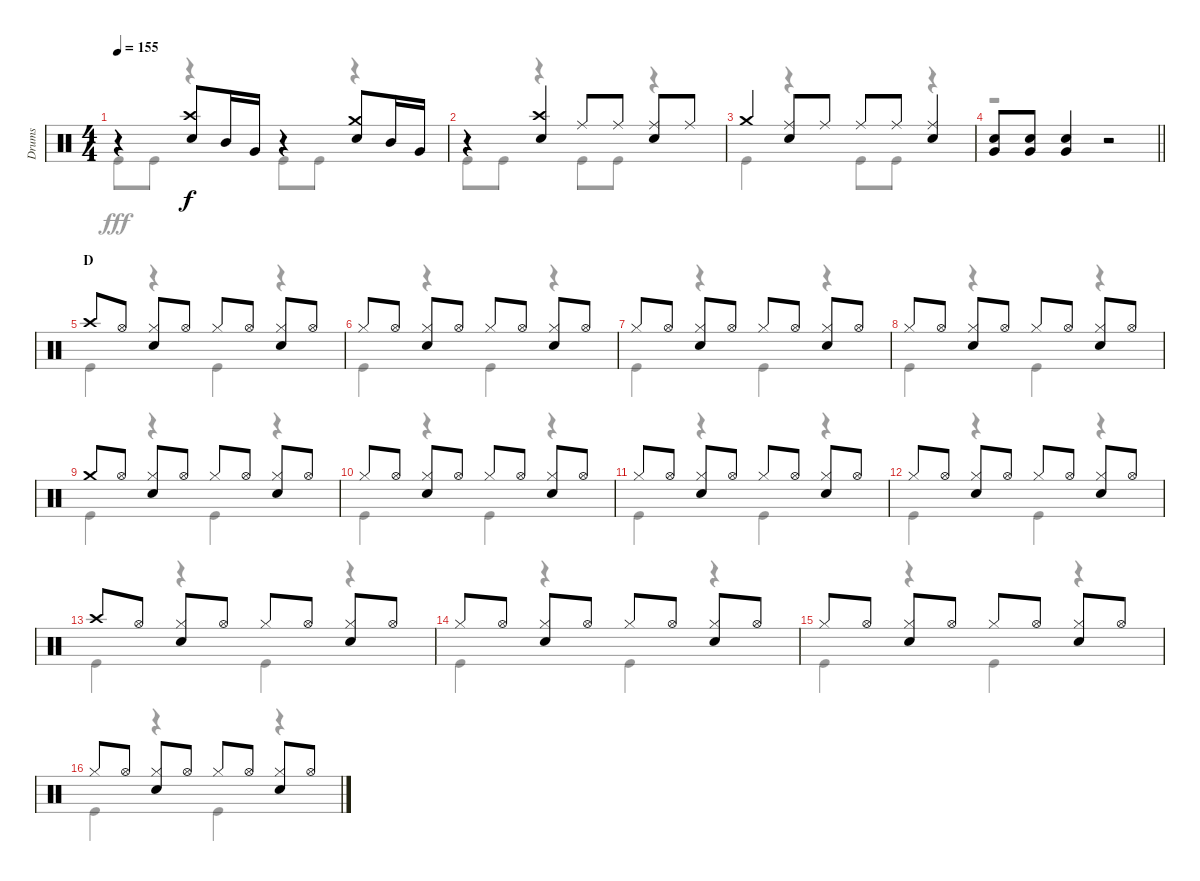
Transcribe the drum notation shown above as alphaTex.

\track ("Drums" "Drums") {instrument percussion}
\staff {score}
\articulation defaults
\voice
\ts (4 4)
\tempo 155
\clef neutral
\ks c
r.4{dy f} ("Crash high (hit)" "Snare (hit) 2").8 "Mid Tom (hit)".16 "Very Low Tom (hit)".16 r.4 ("Crash medium (hit)" "Snare (hit) 2").8 "Mid Tom (hit)".16 "Very Low Tom (hit)".16 |
r.4 ("Crash high (hit)" "Snare (hit) 2").4 "Ride (middle)".8 "Ride (middle)".8 ("Ride (middle)" "Snare (hit) 2").8 "Ride (middle)".8 |
"Crash medium (hit)".4 ("Ride (middle)" "Snare (hit) 2").8 "Ride (middle)".8 "Ride (middle)".8 "Ride (middle)".8 ("Ride (middle)" "Snare (hit) 2").4 |
\barLineRight lightlight
("Snare (hit) 2" "Very Low Tom (hit)").8 ("Snare (hit) 2" "Very Low Tom (hit)").8 ("Snare (hit) 2" "Very Low Tom (hit)").4 r.2 |
\section ("" "D")
"Crash high (hit)".8 "Hi-Hat (open)".8 ("Hi-Hat (closed)" "Snare (hit) 2").8 "Hi-Hat (open)".8 "Hi-Hat (closed)".8 "Hi-Hat (open)".8 ("Hi-Hat (closed)" "Snare (hit) 2").8 "Hi-Hat (open)".8 |
"Hi-Hat (closed)".8 "Hi-Hat (open)".8 ("Hi-Hat (closed)" "Snare (hit) 2").8 "Hi-Hat (open)".8 "Hi-Hat (closed)".8 "Hi-Hat (open)".8 ("Hi-Hat (closed)" "Snare (hit) 2").8 "Hi-Hat (open)".8 |
"Hi-Hat (closed)".8 "Hi-Hat (open)".8 ("Hi-Hat (closed)" "Snare (hit) 2").8 "Hi-Hat (open)".8 "Hi-Hat (closed)".8 "Hi-Hat (open)".8 ("Hi-Hat (closed)" "Snare (hit) 2").8 "Hi-Hat (open)".8 |
"Hi-Hat (closed)".8 "Hi-Hat (open)".8 ("Hi-Hat (closed)" "Snare (hit) 2").8 "Hi-Hat (open)".8 "Hi-Hat (closed)".8 "Hi-Hat (open)".8 ("Hi-Hat (closed)" "Snare (hit) 2").8 "Hi-Hat (open)".8 |
"Crash medium (hit)".8 "Hi-Hat (open)".8 ("Hi-Hat (closed)" "Snare (hit) 2").8 "Hi-Hat (open)".8 "Hi-Hat (closed)".8 "Hi-Hat (open)".8 ("Hi-Hat (closed)" "Snare (hit) 2").8 "Hi-Hat (open)".8 |
"Hi-Hat (closed)".8 "Hi-Hat (open)".8 ("Hi-Hat (closed)" "Snare (hit) 2").8 "Hi-Hat (open)".8 "Hi-Hat (closed)".8 "Hi-Hat (open)".8 ("Hi-Hat (closed)" "Snare (hit) 2").8 "Hi-Hat (open)".8 |
"Hi-Hat (closed)".8 "Hi-Hat (open)".8 ("Hi-Hat (closed)" "Snare (hit) 2").8 "Hi-Hat (open)".8 "Hi-Hat (closed)".8 "Hi-Hat (open)".8 ("Hi-Hat (closed)" "Snare (hit) 2").8 "Hi-Hat (open)".8 |
"Hi-Hat (closed)".8 "Hi-Hat (open)".8 ("Hi-Hat (closed)" "Snare (hit) 2").8 "Hi-Hat (open)".8 "Hi-Hat (closed)".8 "Hi-Hat (open)".8 ("Hi-Hat (closed)" "Snare (hit) 2").8 "Hi-Hat (open)".8 |
"Crash high (hit)".8 "Hi-Hat (open)".8 ("Hi-Hat (closed)" "Snare (hit) 2").8 "Hi-Hat (open)".8 "Hi-Hat (closed)".8 "Hi-Hat (open)".8 ("Hi-Hat (closed)" "Snare (hit) 2").8 "Hi-Hat (open)".8 |
"Hi-Hat (closed)".8 "Hi-Hat (open)".8 ("Hi-Hat (closed)" "Snare (hit) 2").8 "Hi-Hat (open)".8 "Hi-Hat (closed)".8 "Hi-Hat (open)".8 ("Hi-Hat (closed)" "Snare (hit) 2").8 "Hi-Hat (open)".8 |
"Hi-Hat (closed)".8 "Hi-Hat (open)".8 ("Hi-Hat (closed)" "Snare (hit) 2").8 "Hi-Hat (open)".8 "Hi-Hat (closed)".8 "Hi-Hat (open)".8 ("Hi-Hat (closed)" "Snare (hit) 2").8 "Hi-Hat (open)".8 |
"Hi-Hat (closed)".8 "Hi-Hat (open)".8 ("Hi-Hat (closed)" "Snare (hit) 2").8 "Hi-Hat (open)".8 "Hi-Hat (closed)".8 "Hi-Hat (open)".8 ("Hi-Hat (closed)" "Snare (hit) 2").8 "Hi-Hat (open)".8
\voice
\clef neutral
\ottava regular
\simile none
\ks c "Kick (hit)".8{dy fff} "Kick (hit)".8
r.4 "Kick (hit)".8 "Kick (hit)".8 r.4 |
"Kick (hit)".8 "Kick (hit)".8 r.4 "Kick (hit)".8 "Kick (hit)".8 r.4 |
"Kick (hit)".4 r.4 "Kick (hit)".8 "Kick (hit)".8 r.4 |
\barLineRight lightlight
r.1 |
"Kick (hit)".4 r.4 "Kick (hit)".4 r.4 |
"Kick (hit)".4 r.4 "Kick (hit)".4 r.4 |
"Kick (hit)".4 r.4 "Kick (hit)".4 r.4 |
"Kick (hit)".4 r.4 "Kick (hit)".4 r.4 |
"Kick (hit)".4 r.4 "Kick (hit)".4 r.4 |
"Kick (hit)".4 r.4 "Kick (hit)".4 r.4 |
"Kick (hit)".4 r.4 "Kick (hit)".4 r.4 |
"Kick (hit)".4 r.4 "Kick (hit)".4 r.4 |
"Kick (hit)".4 r.4 "Kick (hit)".4 r.4 |
"Kick (hit)".4 r.4 "Kick (hit)".4 r.4 |
"Kick (hit)".4 r.4 "Kick (hit)".4 r.4 |
"Kick (hit)".4 r.4 "Kick (hit)".4 r.4
